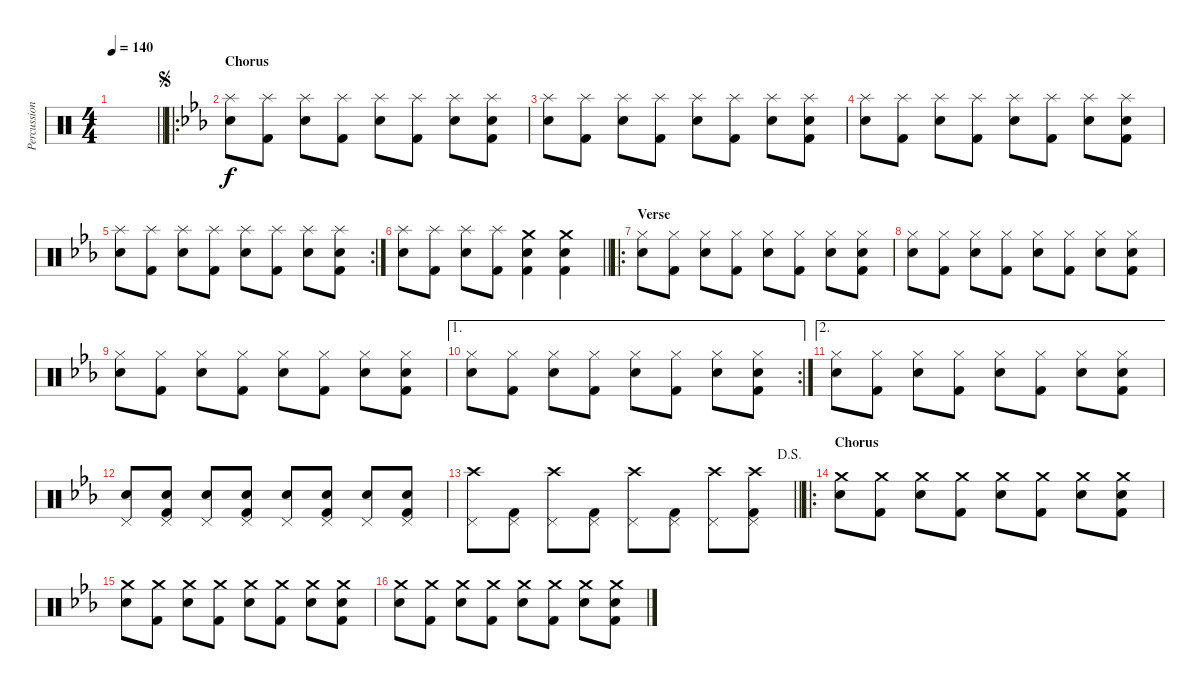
\track ("Percussion (John)" "Percussion") {instrument percussion}
\staff {score}
\articulation defaults
\ts (4 4)
\tempo 140
\clef neutral
\barLineRight lightlight
\ks c
|
\ro
\section ("" "Chorus")
\jump segno
\ks cminor
("Splash (hit)" "Electric Snare (hit)").8 ("Splash (hit)" "Kick (hit) 2").8 ("Splash (hit)" "Electric Snare (hit)").8 ("Splash (hit)" "Kick (hit) 2").8 ("Splash (hit)" "Electric Snare (hit)").8 ("Splash (hit)" "Kick (hit) 2").8 ("Splash (hit)" "Electric Snare (hit)").8 ("Splash (hit)" "Kick (hit) 2" "Electric Snare (hit)").8 |
("Splash (hit)" "Electric Snare (hit)").8 ("Splash (hit)" "Kick (hit) 2").8 ("Splash (hit)" "Electric Snare (hit)").8 ("Splash (hit)" "Kick (hit) 2").8 ("Splash (hit)" "Electric Snare (hit)").8 ("Splash (hit)" "Kick (hit) 2").8 ("Splash (hit)" "Electric Snare (hit)").8 ("Splash (hit)" "Kick (hit) 2" "Electric Snare (hit)").8 |
("Splash (hit)" "Electric Snare (hit)").8 ("Splash (hit)" "Kick (hit) 2").8 ("Splash (hit)" "Electric Snare (hit)").8 ("Splash (hit)" "Kick (hit) 2").8 ("Splash (hit)" "Electric Snare (hit)").8 ("Splash (hit)" "Kick (hit) 2").8 ("Splash (hit)" "Electric Snare (hit)").8 ("Splash (hit)" "Kick (hit) 2" "Electric Snare (hit)").8 |
\rc 2
("Splash (hit)" "Electric Snare (hit)").8 ("Splash (hit)" "Kick (hit) 2").8 ("Splash (hit)" "Electric Snare (hit)").8 ("Splash (hit)" "Kick (hit) 2").8 ("Splash (hit)" "Electric Snare (hit)").8 ("Splash (hit)" "Kick (hit) 2").8 ("Splash (hit)" "Electric Snare (hit)").8 ("Splash (hit)" "Kick (hit) 2" "Electric Snare (hit)").8 |
\barLineRight lightlight
("Splash (hit)" "Electric Snare (hit)").8 ("Splash (hit)" "Kick (hit) 2").8 ("Splash (hit)" "Electric Snare (hit)").8 ("Splash (hit)" "Kick (hit) 2").8 ("Crash medium (hit)" "Electric Snare (hit)" "Kick (hit) 2").4 ("Crash medium (hit)" "Electric Snare (hit)" "Kick (hit) 2").4 |
\ro
\section ("" "Verse")
("Hi-Hat (closed)" "Electric Snare (hit)").8 ("Hi-Hat (closed)" "Kick (hit) 2").8 ("Hi-Hat (closed)" "Electric Snare (hit)").8 ("Hi-Hat (closed)" "Kick (hit) 2").8 ("Hi-Hat (closed)" "Electric Snare (hit)").8 ("Hi-Hat (closed)" "Kick (hit) 2").8 ("Hi-Hat (closed)" "Electric Snare (hit)").8 ("Hi-Hat (closed)" "Electric Snare (hit)" "Kick (hit) 2").8 |
("Hi-Hat (closed)" "Electric Snare (hit)").8 ("Hi-Hat (closed)" "Kick (hit) 2").8 ("Hi-Hat (closed)" "Electric Snare (hit)").8 ("Hi-Hat (closed)" "Kick (hit) 2").8 ("Hi-Hat (closed)" "Electric Snare (hit)").8 ("Hi-Hat (closed)" "Kick (hit) 2").8 ("Hi-Hat (closed)" "Electric Snare (hit)").8 ("Hi-Hat (closed)" "Electric Snare (hit)" "Kick (hit) 2").8 |
("Hi-Hat (closed)" "Electric Snare (hit)").8 ("Hi-Hat (closed)" "Kick (hit) 2").8 ("Hi-Hat (closed)" "Electric Snare (hit)").8 ("Hi-Hat (closed)" "Kick (hit) 2").8 ("Hi-Hat (closed)" "Electric Snare (hit)").8 ("Hi-Hat (closed)" "Kick (hit) 2").8 ("Hi-Hat (closed)" "Electric Snare (hit)").8 ("Hi-Hat (closed)" "Electric Snare (hit)" "Kick (hit) 2").8 |
\ae 1
\rc 2
("Hi-Hat (closed)" "Electric Snare (hit)").8 ("Hi-Hat (closed)" "Kick (hit) 2").8 ("Hi-Hat (closed)" "Electric Snare (hit)").8 ("Hi-Hat (closed)" "Kick (hit) 2").8 ("Hi-Hat (closed)" "Electric Snare (hit)").8 ("Hi-Hat (closed)" "Kick (hit) 2").8 ("Hi-Hat (closed)" "Electric Snare (hit)").8 ("Hi-Hat (closed)" "Electric Snare (hit)" "Kick (hit) 2").8 |
\ae 2
("Hi-Hat (closed)" "Electric Snare (hit)").8 ("Hi-Hat (closed)" "Kick (hit) 2").8 ("Hi-Hat (closed)" "Electric Snare (hit)").8 ("Hi-Hat (closed)" "Kick (hit) 2").8 ("Hi-Hat (closed)" "Electric Snare (hit)").8 ("Hi-Hat (closed)" "Kick (hit) 2").8 ("Hi-Hat (closed)" "Electric Snare (hit)").8 ("Hi-Hat (closed)" "Electric Snare (hit)" "Kick (hit) 2").8 |
("Pedal Hi-Hat (hit)" "Electric Snare (hit)").8 ("Pedal Hi-Hat (hit)" "Electric Snare (hit)" "Kick (hit) 2").8 ("Pedal Hi-Hat (hit)" "Electric Snare (hit)").8 ("Pedal Hi-Hat (hit)" "Electric Snare (hit)" "Kick (hit) 2").8 ("Pedal Hi-Hat (hit)" "Electric Snare (hit)").8 ("Pedal Hi-Hat (hit)" "Electric Snare (hit)" "Kick (hit) 2").8 ("Pedal Hi-Hat (hit)" "Electric Snare (hit)").8 ("Pedal Hi-Hat (hit)" "Electric Snare (hit)" "Kick (hit) 2").8 |
\jump dalsegno
\barLineRight lightlight
("Pedal Hi-Hat (hit)" "Crash high (hit)").8 ("Pedal Hi-Hat (hit)" "Kick (hit) 2").8 ("Pedal Hi-Hat (hit)" "Crash high (hit)").8 ("Pedal Hi-Hat (hit)" "Kick (hit) 2").8 ("Pedal Hi-Hat (hit)" "Crash high (hit)").8 ("Pedal Hi-Hat (hit)" "Kick (hit) 2").8 ("Pedal Hi-Hat (hit)" "Crash high (hit)").8 ("Pedal Hi-Hat (hit)" "Crash high (hit)" "Kick (hit) 2").8 |
\ro
\section ("" "Chorus")
("Crash medium (hit)" "Electric Snare (hit)").8 ("Crash medium (hit)" "Kick (hit) 2").8 ("Crash medium (hit)" "Electric Snare (hit)").8 ("Crash medium (hit)" "Kick (hit) 2").8 ("Crash medium (hit)" "Electric Snare (hit)").8 ("Crash medium (hit)" "Kick (hit) 2").8 ("Crash medium (hit)" "Electric Snare (hit)").8 ("Crash medium (hit)" "Electric Snare (hit)" "Kick (hit) 2").8 |
("Crash medium (hit)" "Electric Snare (hit)").8 ("Crash medium (hit)" "Kick (hit) 2").8 ("Crash medium (hit)" "Electric Snare (hit)").8 ("Crash medium (hit)" "Kick (hit) 2").8 ("Crash medium (hit)" "Electric Snare (hit)").8 ("Crash medium (hit)" "Kick (hit) 2").8 ("Crash medium (hit)" "Electric Snare (hit)").8 ("Crash medium (hit)" "Electric Snare (hit)" "Kick (hit) 2").8 |
("Crash medium (hit)" "Electric Snare (hit)").8 ("Crash medium (hit)" "Kick (hit) 2").8 ("Crash medium (hit)" "Electric Snare (hit)").8 ("Crash medium (hit)" "Kick (hit) 2").8 ("Crash medium (hit)" "Electric Snare (hit)").8 ("Crash medium (hit)" "Kick (hit) 2").8 ("Crash medium (hit)" "Electric Snare (hit)").8 ("Crash medium (hit)" "Electric Snare (hit)" "Kick (hit) 2").8
